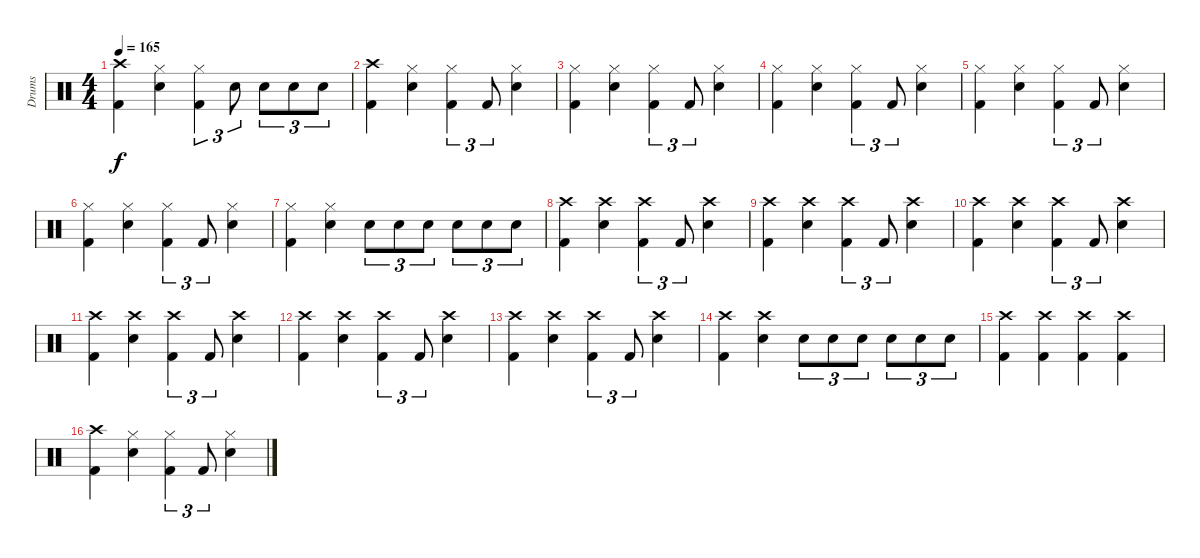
\track ("Drums" "Drums") {instrument percussion}
\staff {score}
\articulation defaults
\ts (4 4)
\tempo 165
\clef neutral
\ks c
("Crash high (hit)" "Kick (hit) 2").4{dy f} ("Hi-Hat (closed)" "Electric Snare (hit)").4 ("Hi-Hat (closed)" "Kick (hit) 2").4{tu (3 2)} "Electric Snare (hit)".8{tu (3 2)} "Electric Snare (hit)".8{tu (3 2)} "Electric Snare (hit)".8{tu (3 2)} "Electric Snare (hit)".8{tu (3 2)} |
("Crash high (hit)" "Kick (hit) 2").4 ("Hi-Hat (closed)" "Electric Snare (hit)").4 ("Hi-Hat (closed)" "Kick (hit) 2").4{tu (3 2)} "Kick (hit) 2".8{tu (3 2)} ("Hi-Hat (closed)" "Electric Snare (hit)").4 |
("Hi-Hat (closed)" "Kick (hit) 2").4 ("Hi-Hat (closed)" "Electric Snare (hit)").4 ("Hi-Hat (closed)" "Kick (hit) 2").4{tu (3 2)} "Kick (hit) 2".8{tu (3 2)} ("Hi-Hat (closed)" "Electric Snare (hit)").4 |
("Hi-Hat (closed)" "Kick (hit) 2").4 ("Hi-Hat (closed)" "Electric Snare (hit)").4 ("Hi-Hat (closed)" "Kick (hit) 2").4{tu (3 2)} "Kick (hit) 2".8{tu (3 2)} ("Hi-Hat (closed)" "Electric Snare (hit)").4 |
("Hi-Hat (closed)" "Kick (hit) 2").4 ("Hi-Hat (closed)" "Electric Snare (hit)").4 ("Hi-Hat (closed)" "Kick (hit) 2").4{tu (3 2)} "Kick (hit) 2".8{tu (3 2)} ("Hi-Hat (closed)" "Electric Snare (hit)").4 |
("Hi-Hat (closed)" "Kick (hit) 2").4 ("Hi-Hat (closed)" "Electric Snare (hit)").4 ("Hi-Hat (closed)" "Kick (hit) 2").4{tu (3 2)} "Kick (hit) 2".8{tu (3 2)} ("Hi-Hat (closed)" "Electric Snare (hit)").4 |
("Hi-Hat (closed)" "Kick (hit) 2").4 ("Hi-Hat (closed)" "Electric Snare (hit)").4 "Electric Snare (hit)".8{tu (3 2)} "Electric Snare (hit)".8{tu (3 2)} "Electric Snare (hit)".8{tu (3 2)} "Electric Snare (hit)".8{tu (3 2)} "Electric Snare (hit)".8{tu (3 2)} "Electric Snare (hit)".8{tu (3 2)} |
("Crash high (hit)" "Kick (hit) 2").4 ("Crash high (hit)" "Electric Snare (hit)").4 ("Crash high (hit)" "Kick (hit) 2").4{tu (3 2)} "Kick (hit) 2".8{tu (3 2)} ("Crash high (hit)" "Electric Snare (hit)").4 |
("Crash high (hit)" "Kick (hit) 2").4 ("Crash high (hit)" "Electric Snare (hit)").4 ("Crash high (hit)" "Kick (hit) 2").4{tu (3 2)} "Kick (hit) 2".8{tu (3 2)} ("Crash high (hit)" "Electric Snare (hit)").4 |
("Crash high (hit)" "Kick (hit) 2").4 ("Crash high (hit)" "Electric Snare (hit)").4 ("Crash high (hit)" "Kick (hit) 2").4{tu (3 2)} "Kick (hit) 2".8{tu (3 2)} ("Crash high (hit)" "Electric Snare (hit)").4 |
("Crash high (hit)" "Kick (hit) 2").4 ("Crash high (hit)" "Electric Snare (hit)").4 ("Crash high (hit)" "Kick (hit) 2").4{tu (3 2)} "Kick (hit) 2".8{tu (3 2)} ("Crash high (hit)" "Electric Snare (hit)").4 |
("Crash high (hit)" "Kick (hit) 2").4 ("Crash high (hit)" "Electric Snare (hit)").4 ("Crash high (hit)" "Kick (hit) 2").4{tu (3 2)} "Kick (hit) 2".8{tu (3 2)} ("Crash high (hit)" "Electric Snare (hit)").4 |
("Crash high (hit)" "Kick (hit) 2").4 ("Crash high (hit)" "Electric Snare (hit)").4 ("Crash high (hit)" "Kick (hit) 2").4{tu (3 2)} "Kick (hit) 2".8{tu (3 2)} ("Crash high (hit)" "Electric Snare (hit)").4 |
("Crash high (hit)" "Kick (hit) 2").4 ("Crash high (hit)" "Electric Snare (hit)").4 "Electric Snare (hit)".8{tu (3 2)} "Electric Snare (hit)".8{tu (3 2)} "Electric Snare (hit)".8{tu (3 2)} "Electric Snare (hit)".8{tu (3 2)} "Electric Snare (hit)".8{tu (3 2)} "Electric Snare (hit)".8{tu (3 2)} |
("Kick (hit) 2" "Crash high (hit)").4 ("Kick (hit) 2" "Crash high (hit)").4 ("Kick (hit) 2" "Crash high (hit)").4 ("Kick (hit) 2" "Crash high (hit)").4 |
("Crash high (hit)" "Kick (hit) 2").4 ("Hi-Hat (closed)" "Electric Snare (hit)").4 ("Hi-Hat (closed)" "Kick (hit) 2").4{tu (3 2)} "Kick (hit) 2".8{tu (3 2)} ("Hi-Hat (closed)" "Electric Snare (hit)").4
